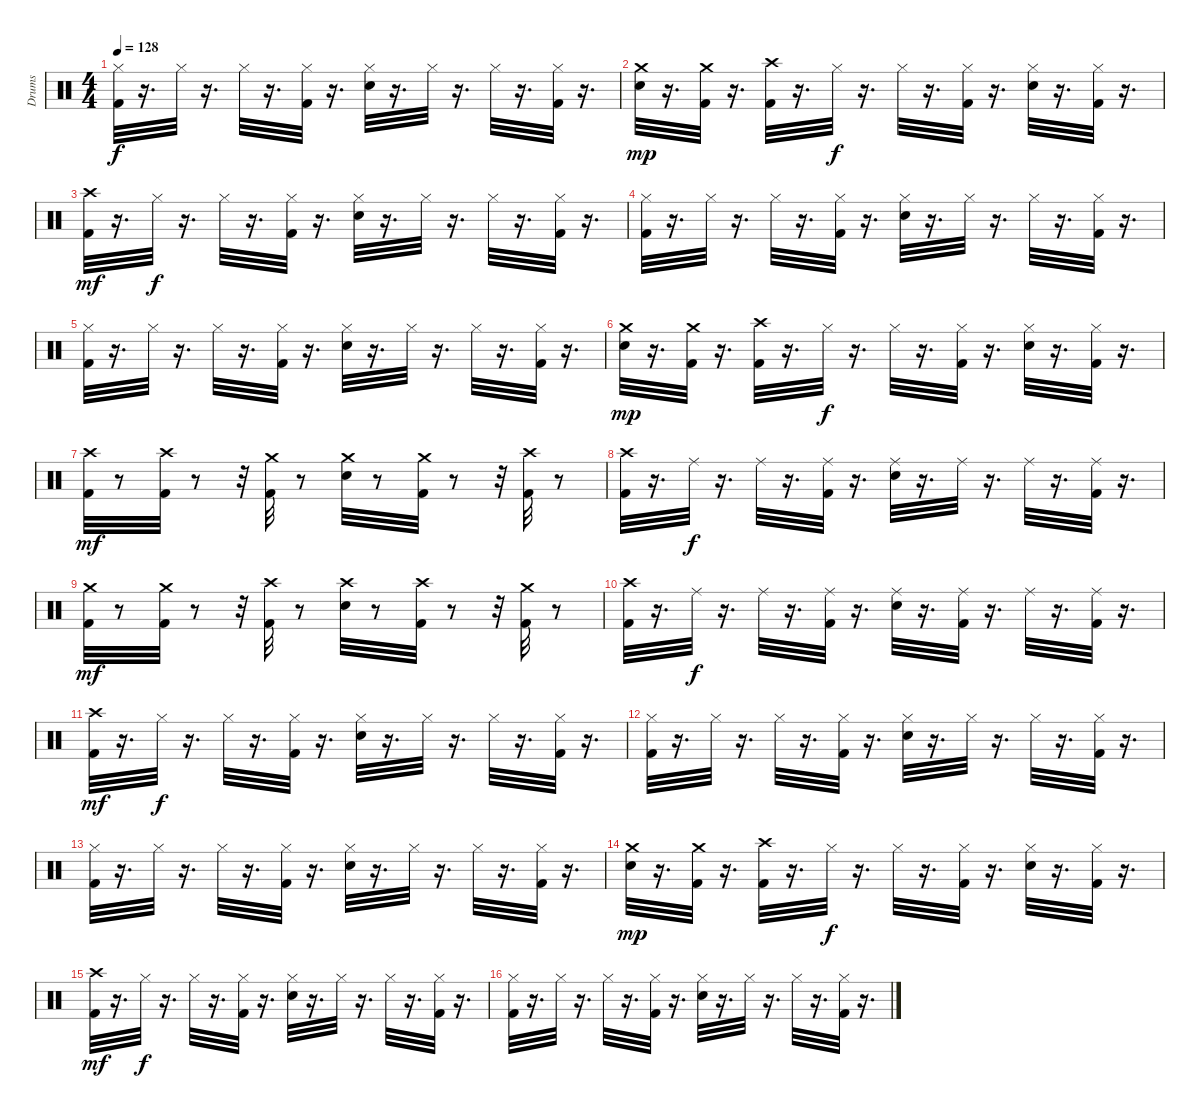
\track ("Drums" "Drums") {instrument percussion}
\staff {score}
\articulation defaults
\ts (4 4)
\tempo 128
\clef neutral
\ks c
("Kick (hit) 2" "Hi-Hat (closed)").32{dy f} r.16{d} "Hi-Hat (closed)".32 r.16{d} "Hi-Hat (closed)".32 r.16{d} ("Kick (hit) 2" "Hi-Hat (closed)").32 r.16{d} ("Snare (hit) 2" "Hi-Hat (closed)").32 r.16{d} "Hi-Hat (closed)".32 r.16{d} "Hi-Hat (closed)".32 r.16{d} ("Kick (hit) 2" "Hi-Hat (closed)").32 r.16{d} |
("Snare (hit) 2" "Crash medium (hit)").32{dy mp} r.16{d} ("Kick (hit) 2" "Crash medium (hit)").32 r.16{d} ("Kick (hit) 2" "Crash high (hit)").32 r.16{d} "Hi-Hat (closed)".32{dy f} r.16{d} "Hi-Hat (closed)".32 r.16{d} ("Kick (hit) 2" "Hi-Hat (closed)").32 r.16{d} ("Snare (hit) 2" "Hi-Hat (closed)").32 r.16{d} ("Kick (hit) 2" "Hi-Hat (closed)").32 r.16{d} |
("Kick (hit) 2" "Crash high (hit)").32{dy mf} r.16{d} "Hi-Hat (closed)".32{dy f} r.16{d} "Hi-Hat (closed)".32 r.16{d} ("Kick (hit) 2" "Hi-Hat (closed)").32 r.16{d} ("Snare (hit) 2" "Hi-Hat (closed)").32 r.16{d} "Hi-Hat (closed)".32 r.16{d} "Hi-Hat (closed)".32 r.16{d} ("Kick (hit) 2" "Hi-Hat (closed)").32 r.16{d} |
("Kick (hit) 2" "Hi-Hat (closed)").32 r.16{d} "Hi-Hat (closed)".32 r.16{d} "Hi-Hat (closed)".32 r.16{d} ("Kick (hit) 2" "Hi-Hat (closed)").32 r.16{d} ("Snare (hit) 2" "Hi-Hat (closed)").32 r.16{d} "Hi-Hat (closed)".32 r.16{d} "Hi-Hat (closed)".32 r.16{d} ("Kick (hit) 2" "Hi-Hat (closed)").32 r.16{d} |
("Kick (hit) 2" "Hi-Hat (closed)").32 r.16{d} "Hi-Hat (closed)".32 r.16{d} "Hi-Hat (closed)".32 r.16{d} ("Kick (hit) 2" "Hi-Hat (closed)").32 r.16{d} ("Snare (hit) 2" "Hi-Hat (closed)").32 r.16{d} "Hi-Hat (closed)".32 r.16{d} "Hi-Hat (closed)".32 r.16{d} ("Kick (hit) 2" "Hi-Hat (closed)").32 r.16{d} |
("Snare (hit) 2" "Crash medium (hit)").32{dy mp} r.16{d} ("Kick (hit) 2" "Crash medium (hit)").32 r.16{d} ("Kick (hit) 2" "Crash high (hit)").32 r.16{d} "Hi-Hat (closed)".32{dy f} r.16{d} "Hi-Hat (closed)".32 r.16{d} ("Kick (hit) 2" "Hi-Hat (closed)").32 r.16{d} ("Snare (hit) 2" "Hi-Hat (closed)").32 r.16{d} ("Kick (hit) 2" "Hi-Hat (closed)").32 r.16{d} |
("Kick (hit) 2" "Crash high (hit)").32{dy mf} r.8 ("Kick (hit) 2" "Crash high (hit)").32 r.8 r.32 ("Kick (hit) 2" "Crash medium (hit)").32 r.8 ("Snare (hit) 2" "Crash medium (hit)").32 r.8 ("Kick (hit) 2" "Crash medium (hit)").32 r.8 r.32 ("Kick (hit) 2" "Crash high (hit)").32 r.8 |
("Kick (hit) 2" "Crash high (hit)").32 r.16{d} "Ride (middle)".32{dy f} r.16{d} "Ride (middle)".32 r.16{d} ("Kick (hit) 2" "Ride (middle)").32 r.16{d} ("Snare (hit) 2" "Ride (middle)").32 r.16{d} "Ride (middle)".32 r.16{d} "Ride (middle)".32 r.16{d} ("Kick (hit) 2" "Ride (middle)").32 r.16{d} |
("Kick (hit) 2" "Crash medium (hit)").32{dy mf} r.8 ("Kick (hit) 2" "Crash medium (hit)").32 r.8 r.32 ("Kick (hit) 2" "Crash high (hit)").32 r.8 ("Snare (hit) 2" "Crash high (hit)").32 r.8 ("Kick (hit) 2" "Crash high (hit)").32 r.8 r.32 ("Kick (hit) 2" "Crash medium (hit)").32 r.8 |
("Kick (hit) 2" "Crash high (hit)").32 r.16{d} "Ride (middle)".32{dy f} r.16{d} "Ride (middle)".32 r.16{d} ("Kick (hit) 2" "Ride (middle)").32 r.16{d} ("Snare (hit) 2" "Ride (middle)").32 r.16{d} ("Kick (hit) 2" "Ride (middle)").32 r.16{d} "Ride (middle)".32 r.16{d} ("Kick (hit) 2" "Ride (middle)").32 r.16{d} |
("Kick (hit) 2" "Crash high (hit)").32{dy mf} r.16{d} "Hi-Hat (closed)".32{dy f} r.16{d} "Hi-Hat (closed)".32 r.16{d} ("Kick (hit) 2" "Hi-Hat (closed)").32 r.16{d} ("Snare (hit) 2" "Hi-Hat (closed)").32 r.16{d} "Hi-Hat (closed)".32 r.16{d} "Hi-Hat (closed)".32 r.16{d} ("Kick (hit) 2" "Hi-Hat (closed)").32 r.16{d} |
("Kick (hit) 2" "Hi-Hat (closed)").32 r.16{d} "Hi-Hat (closed)".32 r.16{d} "Hi-Hat (closed)".32 r.16{d} ("Kick (hit) 2" "Hi-Hat (closed)").32 r.16{d} ("Snare (hit) 2" "Hi-Hat (closed)").32 r.16{d} "Hi-Hat (closed)".32 r.16{d} "Hi-Hat (closed)".32 r.16{d} ("Kick (hit) 2" "Hi-Hat (closed)").32 r.16{d} |
("Kick (hit) 2" "Hi-Hat (closed)").32 r.16{d} "Hi-Hat (closed)".32 r.16{d} "Hi-Hat (closed)".32 r.16{d} ("Kick (hit) 2" "Hi-Hat (closed)").32 r.16{d} ("Snare (hit) 2" "Hi-Hat (closed)").32 r.16{d} "Hi-Hat (closed)".32 r.16{d} "Hi-Hat (closed)".32 r.16{d} ("Kick (hit) 2" "Hi-Hat (closed)").32 r.16{d} |
("Snare (hit) 2" "Crash medium (hit)").32{dy mp} r.16{d} ("Kick (hit) 2" "Crash medium (hit)").32 r.16{d} ("Kick (hit) 2" "Crash high (hit)").32 r.16{d} "Hi-Hat (closed)".32{dy f} r.16{d} "Hi-Hat (closed)".32 r.16{d} ("Kick (hit) 2" "Hi-Hat (closed)").32 r.16{d} ("Snare (hit) 2" "Hi-Hat (closed)").32 r.16{d} ("Kick (hit) 2" "Hi-Hat (closed)").32 r.16{d} |
("Kick (hit) 2" "Crash high (hit)").32{dy mf} r.16{d} "Hi-Hat (closed)".32{dy f} r.16{d} "Hi-Hat (closed)".32 r.16{d} ("Kick (hit) 2" "Hi-Hat (closed)").32 r.16{d} ("Snare (hit) 2" "Hi-Hat (closed)").32 r.16{d} "Hi-Hat (closed)".32 r.16{d} "Hi-Hat (closed)".32 r.16{d} ("Kick (hit) 2" "Hi-Hat (closed)").32 r.16{d} |
("Kick (hit) 2" "Hi-Hat (closed)").32 r.16{d} "Hi-Hat (closed)".32 r.16{d} "Hi-Hat (closed)".32 r.16{d} ("Kick (hit) 2" "Hi-Hat (closed)").32 r.16{d} ("Snare (hit) 2" "Hi-Hat (closed)").32 r.16{d} "Hi-Hat (closed)".32 r.16{d} "Hi-Hat (closed)".32 r.16{d} ("Kick (hit) 2" "Hi-Hat (closed)").32 r.16{d}
